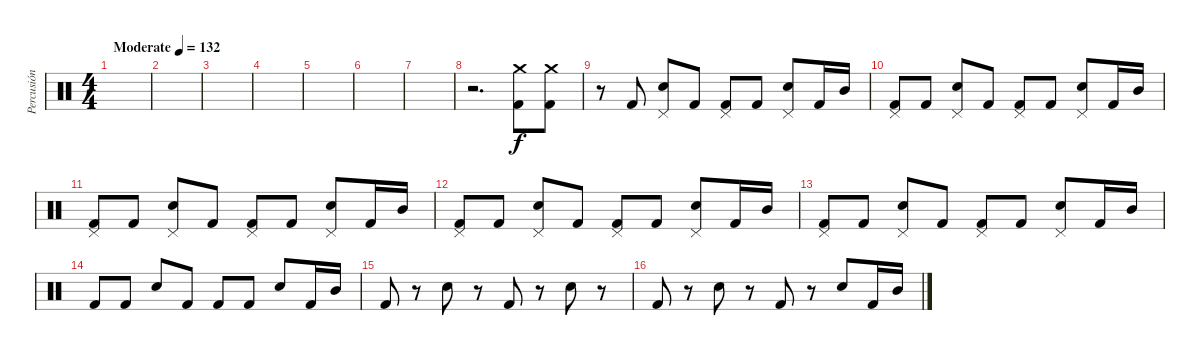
\track ("Percusión" "Percusión") {instrument percussion}
\staff {score}
\articulation defaults
\ts (4 4)
\tempo (132 "Moderate")
\clef neutral
\ks c
|
|
|
|
|
|
|
r.2{d} ("Kick (hit) 2" "Crash medium (hit)").8 ("Kick (hit) 2" "Crash medium (hit)").8 |
r.8 "Kick (hit) 2".8 ("Electric Snare (hit)" "Pedal Hi-Hat (hit)").8 "Kick (hit) 2".8 ("Kick (hit) 2" "Pedal Hi-Hat (hit)").8 "Kick (hit) 2".8 ("Electric Snare (hit)" "Pedal Hi-Hat (hit)").8 "Kick (hit) 2".16 "Mid Tom (hit)".16 |
("Kick (hit) 2" "Pedal Hi-Hat (hit)").8 "Kick (hit) 2".8 ("Electric Snare (hit)" "Pedal Hi-Hat (hit)").8 "Kick (hit) 2".8 ("Kick (hit) 2" "Pedal Hi-Hat (hit)").8 "Kick (hit) 2".8 ("Electric Snare (hit)" "Pedal Hi-Hat (hit)").8 "Kick (hit) 2".16 "Mid Tom (hit)".16 |
("Kick (hit) 2" "Pedal Hi-Hat (hit)").8 "Kick (hit) 2".8 ("Electric Snare (hit)" "Pedal Hi-Hat (hit)").8 "Kick (hit) 2".8 ("Kick (hit) 2" "Pedal Hi-Hat (hit)").8 "Kick (hit) 2".8 ("Electric Snare (hit)" "Pedal Hi-Hat (hit)").8 "Kick (hit) 2".16 "Mid Tom (hit)".16 |
("Kick (hit) 2" "Pedal Hi-Hat (hit)").8 "Kick (hit) 2".8 ("Electric Snare (hit)" "Pedal Hi-Hat (hit)").8 "Kick (hit) 2".8 ("Kick (hit) 2" "Pedal Hi-Hat (hit)").8 "Kick (hit) 2".8 ("Electric Snare (hit)" "Pedal Hi-Hat (hit)").8 "Kick (hit) 2".16 "Mid Tom (hit)".16 |
("Kick (hit) 2" "Pedal Hi-Hat (hit)").8 "Kick (hit) 2".8 ("Electric Snare (hit)" "Pedal Hi-Hat (hit)").8 "Kick (hit) 2".8 ("Kick (hit) 2" "Pedal Hi-Hat (hit)").8 "Kick (hit) 2".8 ("Electric Snare (hit)" "Pedal Hi-Hat (hit)").8 "Kick (hit) 2".16 "Mid Tom (hit)".16 |
"Kick (hit) 2".8 "Kick (hit) 2".8 "Electric Snare (hit)".8 "Kick (hit) 2".8 "Kick (hit) 2".8 "Kick (hit) 2".8 "Electric Snare (hit)".8 "Kick (hit) 2".16 "Mid Tom (hit)".16 |
"Kick (hit) 2".8 r.8 "Electric Snare (hit)".8 r.8 "Kick (hit) 2".8 r.8 "Electric Snare (hit)".8 r.8 |
"Kick (hit) 2".8 r.8 "Electric Snare (hit)".8 r.8 "Kick (hit) 2".8 r.8 "Electric Snare (hit)".8 "Kick (hit) 2".16 "Mid Tom (hit)".16
